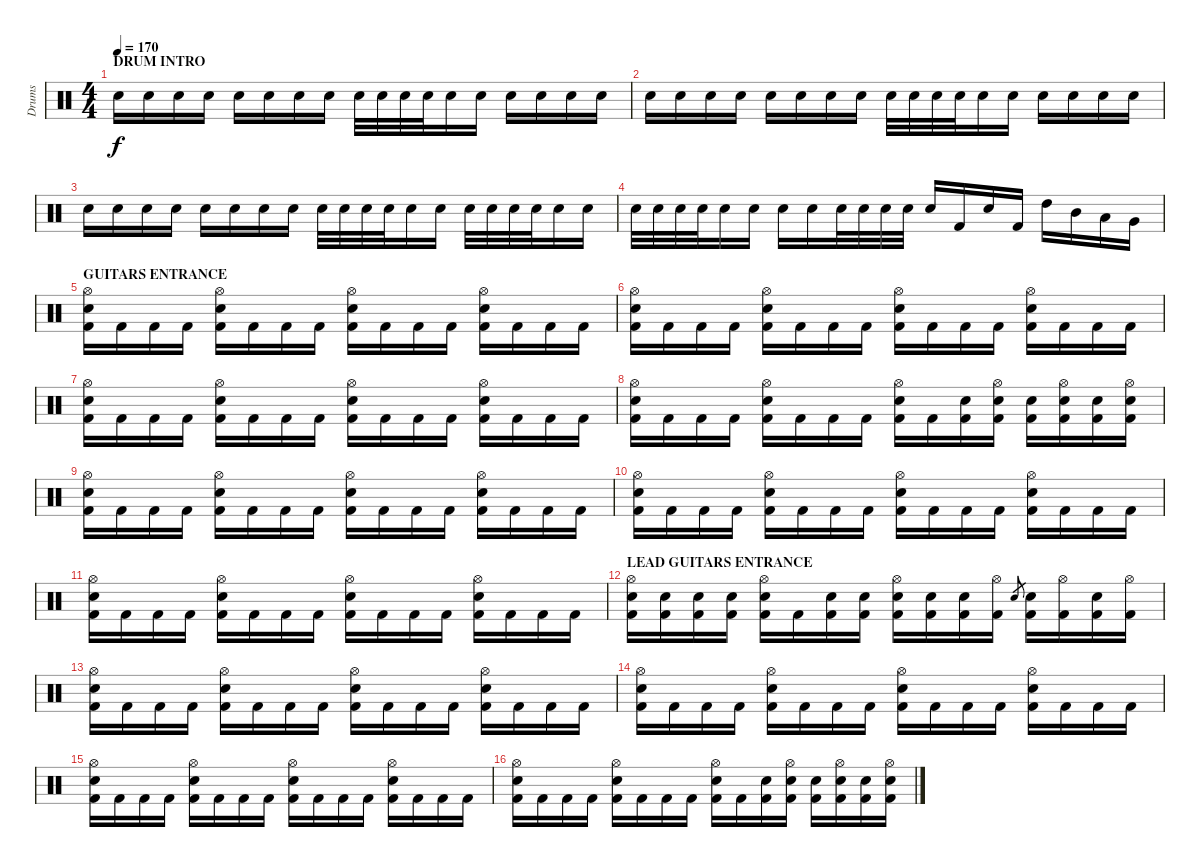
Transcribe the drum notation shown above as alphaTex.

\track ("Drums" "Drums") {instrument percussion}
\staff {score}
\articulation defaults
\ts (4 4)
\section ("" "DRUM INTRO")
\tempo 170
\clef neutral
\ks c "Electric Snare (hit)".16{dy f} "Electric Snare (hit)".16 "Electric Snare (hit)".16 "Electric Snare (hit)".16 "Electric Snare (hit)".16 "Electric Snare (hit)".16 "Electric Snare (hit)".16 "Electric Snare (hit)".16 "Electric Snare (hit)".32 "Electric Snare (hit)".32 "Electric Snare (hit)".32 "Electric Snare (hit)".32 "Electric Snare (hit)".16 "Electric Snare (hit)".16 "Electric Snare (hit)".16 "Electric Snare (hit)".16 "Electric Snare (hit)".16 "Electric Snare (hit)".16
|
"Electric Snare (hit)".16 "Electric Snare (hit)".16 "Electric Snare (hit)".16 "Electric Snare (hit)".16 "Electric Snare (hit)".16 "Electric Snare (hit)".16 "Electric Snare (hit)".16 "Electric Snare (hit)".16 "Electric Snare (hit)".32 "Electric Snare (hit)".32 "Electric Snare (hit)".32 "Electric Snare (hit)".32 "Electric Snare (hit)".16 "Electric Snare (hit)".16 "Electric Snare (hit)".16 "Electric Snare (hit)".16 "Electric Snare (hit)".16 "Electric Snare (hit)".16 |
"Electric Snare (hit)".16 "Electric Snare (hit)".16 "Electric Snare (hit)".16 "Electric Snare (hit)".16 "Electric Snare (hit)".16 "Electric Snare (hit)".16 "Electric Snare (hit)".16 "Electric Snare (hit)".16 "Electric Snare (hit)".32 "Electric Snare (hit)".32 "Electric Snare (hit)".32 "Electric Snare (hit)".32 "Electric Snare (hit)".16 "Electric Snare (hit)".16 "Electric Snare (hit)".32 "Electric Snare (hit)".32 "Electric Snare (hit)".32 "Electric Snare (hit)".32 "Electric Snare (hit)".16 "Electric Snare (hit)".16 |
"Electric Snare (hit)".32 "Electric Snare (hit)".32 "Electric Snare (hit)".32 "Electric Snare (hit)".32 "Electric Snare (hit)".16 "Electric Snare (hit)".16 "Electric Snare (hit)".16 "Electric Snare (hit)".16 "Electric Snare (hit)".32 "Electric Snare (hit)".32 "Electric Snare (hit)".32 "Electric Snare (hit)".32 "Electric Snare (hit)".16 "Kick (hit) 2".16 "Electric Snare (hit)".16 "Kick (hit) 2".16 "High Tom (hit)".16 "Mid Tom (hit)".16 "Low Tom (hit)".16 "Very Low Tom (hit)".16 |
\section ("" "GUITARS ENTRANCE")
("Hi-Hat (open)" "Electric Snare (hit)" "Kick (hit) 2").16 "Kick (hit) 2".16 "Kick (hit) 2".16 "Kick (hit) 2".16 ("Hi-Hat (open)" "Electric Snare (hit)" "Kick (hit) 2").16 "Kick (hit) 2".16 "Kick (hit) 2".16 "Kick (hit) 2".16 ("Hi-Hat (open)" "Electric Snare (hit)" "Kick (hit) 2").16 "Kick (hit) 2".16 "Kick (hit) 2".16 "Kick (hit) 2".16 ("Hi-Hat (open)" "Electric Snare (hit)" "Kick (hit) 2").16 "Kick (hit) 2".16 "Kick (hit) 2".16 "Kick (hit) 2".16 |
("Hi-Hat (open)" "Electric Snare (hit)" "Kick (hit) 2").16 "Kick (hit) 2".16 "Kick (hit) 2".16 "Kick (hit) 2".16 ("Hi-Hat (open)" "Electric Snare (hit)" "Kick (hit) 2").16 "Kick (hit) 2".16 "Kick (hit) 2".16 "Kick (hit) 2".16 ("Hi-Hat (open)" "Electric Snare (hit)" "Kick (hit) 2").16 "Kick (hit) 2".16 "Kick (hit) 2".16 "Kick (hit) 2".16 ("Hi-Hat (open)" "Electric Snare (hit)" "Kick (hit) 2").16 "Kick (hit) 2".16 "Kick (hit) 2".16 "Kick (hit) 2".16 |
("Hi-Hat (open)" "Electric Snare (hit)" "Kick (hit) 2").16 "Kick (hit) 2".16 "Kick (hit) 2".16 "Kick (hit) 2".16 ("Hi-Hat (open)" "Electric Snare (hit)" "Kick (hit) 2").16 "Kick (hit) 2".16 "Kick (hit) 2".16 "Kick (hit) 2".16 ("Hi-Hat (open)" "Electric Snare (hit)" "Kick (hit) 2").16 "Kick (hit) 2".16 "Kick (hit) 2".16 "Kick (hit) 2".16 ("Hi-Hat (open)" "Electric Snare (hit)" "Kick (hit) 2").16 "Kick (hit) 2".16 "Kick (hit) 2".16 "Kick (hit) 2".16 |
("Hi-Hat (open)" "Electric Snare (hit)" "Kick (hit) 2").16 "Kick (hit) 2".16 "Kick (hit) 2".16 "Kick (hit) 2".16 ("Hi-Hat (open)" "Electric Snare (hit)" "Kick (hit) 2").16 "Kick (hit) 2".16 "Kick (hit) 2".16 "Kick (hit) 2".16 ("Hi-Hat (open)" "Electric Snare (hit)" "Kick (hit) 2").16 "Kick (hit) 2".16 ("Electric Snare (hit)" "Kick (hit) 2").16 ("Hi-Hat (open)" "Electric Snare (hit)" "Kick (hit) 2").16 ("Electric Snare (hit)" "Kick (hit) 2").16 ("Hi-Hat (open)" "Electric Snare (hit)" "Kick (hit) 2").16 ("Electric Snare (hit)" "Kick (hit) 2").16 ("Hi-Hat (open)" "Electric Snare (hit)" "Kick (hit) 2").16 |
("Hi-Hat (open)" "Electric Snare (hit)" "Kick (hit) 2").16 "Kick (hit) 2".16 "Kick (hit) 2".16 "Kick (hit) 2".16 ("Hi-Hat (open)" "Electric Snare (hit)" "Kick (hit) 2").16 "Kick (hit) 2".16 "Kick (hit) 2".16 "Kick (hit) 2".16 ("Hi-Hat (open)" "Electric Snare (hit)" "Kick (hit) 2").16 "Kick (hit) 2".16 "Kick (hit) 2".16 "Kick (hit) 2".16 ("Hi-Hat (open)" "Electric Snare (hit)" "Kick (hit) 2").16 "Kick (hit) 2".16 "Kick (hit) 2".16 "Kick (hit) 2".16 |
("Hi-Hat (open)" "Electric Snare (hit)" "Kick (hit) 2").16 "Kick (hit) 2".16 "Kick (hit) 2".16 "Kick (hit) 2".16 ("Hi-Hat (open)" "Electric Snare (hit)" "Kick (hit) 2").16 "Kick (hit) 2".16 "Kick (hit) 2".16 "Kick (hit) 2".16 ("Hi-Hat (open)" "Electric Snare (hit)" "Kick (hit) 2").16 "Kick (hit) 2".16 "Kick (hit) 2".16 "Kick (hit) 2".16 ("Hi-Hat (open)" "Electric Snare (hit)" "Kick (hit) 2").16 "Kick (hit) 2".16 "Kick (hit) 2".16 "Kick (hit) 2".16 |
("Hi-Hat (open)" "Electric Snare (hit)" "Kick (hit) 2").16 "Kick (hit) 2".16 "Kick (hit) 2".16 "Kick (hit) 2".16 ("Hi-Hat (open)" "Electric Snare (hit)" "Kick (hit) 2").16 "Kick (hit) 2".16 "Kick (hit) 2".16 "Kick (hit) 2".16 ("Hi-Hat (open)" "Electric Snare (hit)" "Kick (hit) 2").16 "Kick (hit) 2".16 "Kick (hit) 2".16 "Kick (hit) 2".16 ("Hi-Hat (open)" "Electric Snare (hit)" "Kick (hit) 2").16 "Kick (hit) 2".16 "Kick (hit) 2".16 "Kick (hit) 2".16 |
\section ("" "LEAD GUITARS ENTRANCE")
("Hi-Hat (open)" "Electric Snare (hit)" "Kick (hit) 2").16 ("Electric Snare (hit)" "Kick (hit) 2").16 ("Electric Snare (hit)" "Kick (hit) 2").16 ("Electric Snare (hit)" "Kick (hit) 2").16 ("Hi-Hat (open)" "Electric Snare (hit)" "Kick (hit) 2").16 "Kick (hit) 2".16 ("Electric Snare (hit)" "Kick (hit) 2").16 ("Electric Snare (hit)" "Kick (hit) 2").16 ("Hi-Hat (open)" "Electric Snare (hit)" "Kick (hit) 2").16 ("Electric Snare (hit)" "Kick (hit) 2").16 ("Electric Snare (hit)" "Kick (hit) 2").16 ("Hi-Hat (open)" "Kick (hit) 2").16 "Electric Snare (hit)".8{gr} ("Electric Snare (hit)" "Kick (hit) 2").16 ("Hi-Hat (open)" "Kick (hit) 2").16 ("Electric Snare (hit)" "Kick (hit) 2").16 ("Hi-Hat (open)" "Kick (hit) 2").16 |
("Hi-Hat (open)" "Electric Snare (hit)" "Kick (hit) 2").16 "Kick (hit) 2".16 "Kick (hit) 2".16 "Kick (hit) 2".16 ("Hi-Hat (open)" "Electric Snare (hit)" "Kick (hit) 2").16 "Kick (hit) 2".16 "Kick (hit) 2".16 "Kick (hit) 2".16 ("Hi-Hat (open)" "Electric Snare (hit)" "Kick (hit) 2").16 "Kick (hit) 2".16 "Kick (hit) 2".16 "Kick (hit) 2".16 ("Hi-Hat (open)" "Electric Snare (hit)" "Kick (hit) 2").16 "Kick (hit) 2".16 "Kick (hit) 2".16 "Kick (hit) 2".16 |
("Hi-Hat (open)" "Electric Snare (hit)" "Kick (hit) 2").16 "Kick (hit) 2".16 "Kick (hit) 2".16 "Kick (hit) 2".16 ("Hi-Hat (open)" "Electric Snare (hit)" "Kick (hit) 2").16 "Kick (hit) 2".16 "Kick (hit) 2".16 "Kick (hit) 2".16 ("Hi-Hat (open)" "Electric Snare (hit)" "Kick (hit) 2").16 "Kick (hit) 2".16 "Kick (hit) 2".16 "Kick (hit) 2".16 ("Hi-Hat (open)" "Electric Snare (hit)" "Kick (hit) 2").16 "Kick (hit) 2".16 "Kick (hit) 2".16 "Kick (hit) 2".16 |
("Hi-Hat (open)" "Electric Snare (hit)" "Kick (hit) 2").16 "Kick (hit) 2".16 "Kick (hit) 2".16 "Kick (hit) 2".16 ("Hi-Hat (open)" "Electric Snare (hit)" "Kick (hit) 2").16 "Kick (hit) 2".16 "Kick (hit) 2".16 "Kick (hit) 2".16 ("Hi-Hat (open)" "Electric Snare (hit)" "Kick (hit) 2").16 "Kick (hit) 2".16 "Kick (hit) 2".16 "Kick (hit) 2".16 ("Hi-Hat (open)" "Electric Snare (hit)" "Kick (hit) 2").16 "Kick (hit) 2".16 "Kick (hit) 2".16 "Kick (hit) 2".16 |
("Hi-Hat (open)" "Electric Snare (hit)" "Kick (hit) 2").16 "Kick (hit) 2".16 "Kick (hit) 2".16 "Kick (hit) 2".16 ("Hi-Hat (open)" "Electric Snare (hit)" "Kick (hit) 2").16 "Kick (hit) 2".16 "Kick (hit) 2".16 "Kick (hit) 2".16 ("Hi-Hat (open)" "Electric Snare (hit)" "Kick (hit) 2").16 "Kick (hit) 2".16 ("Electric Snare (hit)" "Kick (hit) 2").16 ("Hi-Hat (open)" "Electric Snare (hit)" "Kick (hit) 2").16 ("Electric Snare (hit)" "Kick (hit) 2").16 ("Hi-Hat (open)" "Electric Snare (hit)" "Kick (hit) 2").16 ("Electric Snare (hit)" "Kick (hit) 2").16 ("Hi-Hat (open)" "Electric Snare (hit)" "Kick (hit) 2").16
